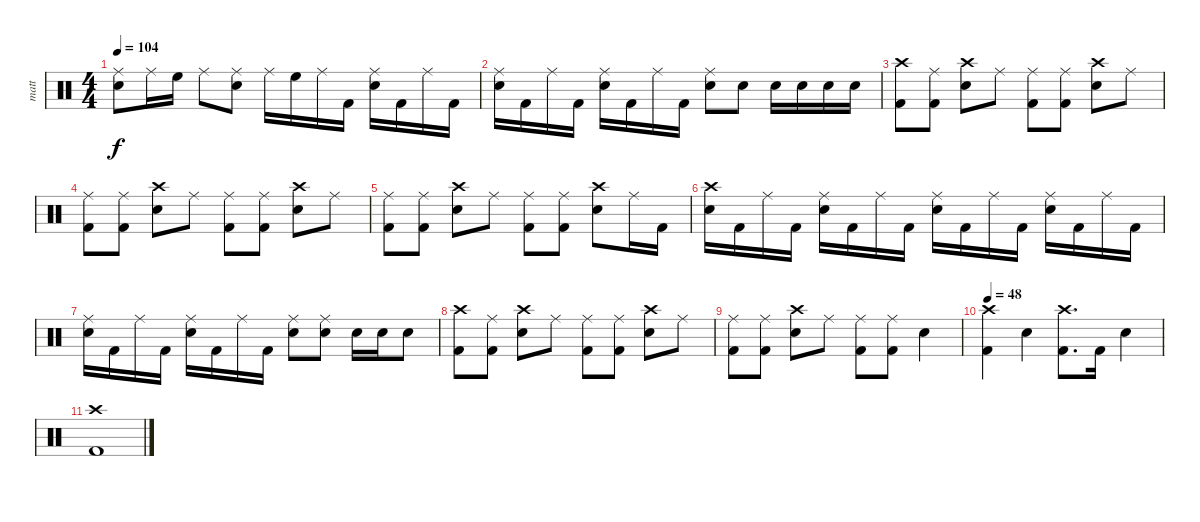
\track ("matt" "matt") {instrument percussion}
\staff {score}
\articulation defaults
\ts (4 4)
\tempo 104
\clef neutral
\ks c
("Ride (middle)" "Electric Snare (hit)").8{dy f} "Ride (middle)".16 "High Floor Tom (hit)".16 "Ride (middle)".8 ("Ride (middle)" "Electric Snare (hit)").8 "Ride (middle)".16 "High Floor Tom (hit)".16 "Ride (middle)".16 "Kick (hit) 2".16 ("Ride (middle)" "Electric Snare (hit)").16 "Kick (hit) 2".16 "Ride (middle)".16 "Kick (hit) 2".16 |
("Ride (middle)" "Electric Snare (hit)").16 "Kick (hit) 2".16 "Ride (middle)".16 "Kick (hit) 2".16 ("Ride (middle)" "Electric Snare (hit)").16 "Kick (hit) 2".16 "Ride (middle)".16 "Kick (hit) 2".16 ("Ride (middle)" "Electric Snare (hit)").8 "Electric Snare (hit)".8 "Electric Snare (hit)".16 "Electric Snare (hit)".16 "Electric Snare (hit)".16 "Electric Snare (hit)".16 |
("Crash high (hit)" "Kick (hit) 2").8 ("Ride (middle)" "Kick (hit) 2").8 ("Crash high (hit)" "Electric Snare (hit)").8 "Ride (middle)".8 ("Ride (middle)" "Kick (hit) 2").8 ("Ride (middle)" "Kick (hit) 2").8 ("Crash high (hit)" "Electric Snare (hit)").8 "Ride (middle)".8 |
("Ride (middle)" "Kick (hit) 2").8 ("Ride (middle)" "Kick (hit) 2").8 ("Crash high (hit)" "Electric Snare (hit)").8 "Ride (middle)".8 ("Ride (middle)" "Kick (hit) 2").8 ("Ride (middle)" "Kick (hit) 2").8 ("Crash high (hit)" "Electric Snare (hit)").8 "Ride (middle)".8 |
("Ride (middle)" "Kick (hit) 2").8 ("Ride (middle)" "Kick (hit) 2").8 ("Crash high (hit)" "Electric Snare (hit)").8 "Ride (middle)".8 ("Ride (middle)" "Kick (hit) 2").8 ("Ride (middle)" "Kick (hit) 2").8 ("Crash high (hit)" "Electric Snare (hit)").8 "Ride (middle)".16 "Kick (hit) 2".16 |
("Crash high (hit)" "Electric Snare (hit)").16 "Kick (hit) 2".16 "Ride (middle)".16 "Kick (hit) 2".16 ("Ride (middle)" "Electric Snare (hit)").16 "Kick (hit) 2".16 "Ride (middle)".16 "Kick (hit) 2".16 ("Ride (middle)" "Electric Snare (hit)").16 "Kick (hit) 2".16 "Ride (middle)".16 "Kick (hit) 2".16 ("Ride (middle)" "Electric Snare (hit)").16 "Kick (hit) 2".16 "Ride (middle)".16 "Kick (hit) 2".16 |
("Ride (middle)" "Electric Snare (hit)").16 "Kick (hit) 2".16 "Ride (middle)".16 "Kick (hit) 2".16 ("Ride (middle)" "Electric Snare (hit)").16 "Kick (hit) 2".16 "Ride (middle)".16 "Kick (hit) 2".16 ("Ride (middle)" "Electric Snare (hit)").8 ("Ride (middle)" "Electric Snare (hit)").8 "Electric Snare (hit)".16 "Electric Snare (hit)".16 "Electric Snare (hit)".8 |
("Crash high (hit)" "Kick (hit) 2").8 ("Ride (middle)" "Kick (hit) 2").8 ("Crash high (hit)" "Electric Snare (hit)").8 "Ride (middle)".8 ("Ride (middle)" "Kick (hit) 2").8 ("Ride (middle)" "Kick (hit) 2").8 ("Crash high (hit)" "Electric Snare (hit)").8 "Ride (middle)".8 |
("Ride (middle)" "Kick (hit) 2").8 ("Ride (middle)" "Kick (hit) 2").8 ("Crash high (hit)" "Electric Snare (hit)").8 "Ride (middle)".8 ("Ride (middle)" "Kick (hit) 2").8 ("Ride (middle)" "Kick (hit) 2").8 "Electric Snare (hit)".4 |
\tempo 48
("Crash high (hit)" "Kick (hit) 2").4 "Electric Snare (hit)".4 ("Crash high (hit)" "Kick (hit) 2").8{d} "Kick (hit) 2".16 "Electric Snare (hit)".4 |
("Crash high (hit)" "Kick (hit) 2").1
